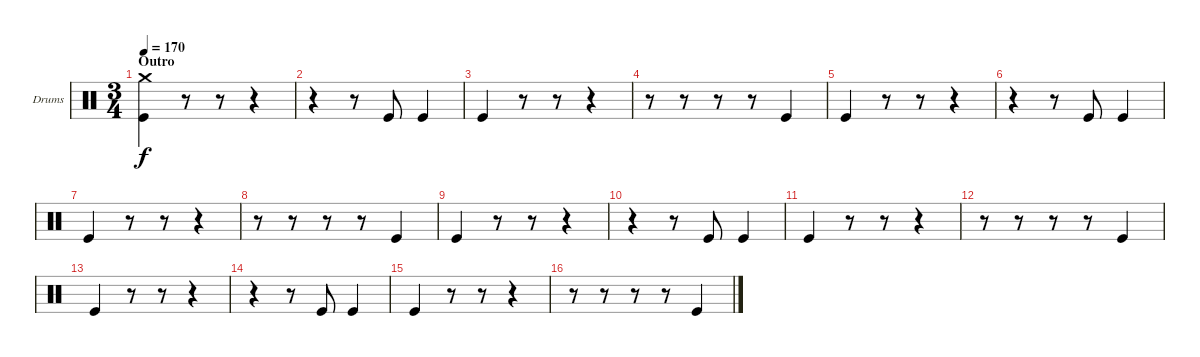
\defaultSystemsLayout 4
\bracketExtendMode groupsimilarinstruments
\firstSystemTrackNameOrientation horizontal
\otherSystemsTrackNameOrientation horizontal
\track ("Drums" "Drums") {instrument percussion}
\staff {score}
\articulation defaults
\ts (3 4)
\section ("" "Outro")
\tempo 170
\clef neutral
\ks c
("Kick (hit)" "Crash medium (hit)").4{dy f} r.8 r.8 r.4 |
r.4 r.8 "Kick (hit)".8 "Kick (hit)".4 |
"Kick (hit)".4 r.8 r.8 r.4 |
r.8 r.8 r.8 r.8 "Kick (hit)".4 |
"Kick (hit)".4 r.8 r.8 r.4 |
r.4 r.8 "Kick (hit)".8 "Kick (hit)".4 |
"Kick (hit)".4 r.8 r.8 r.4 |
r.8 r.8 r.8 r.8 "Kick (hit)".4 |
"Kick (hit)".4 r.8 r.8 r.4 |
r.4 r.8 "Kick (hit)".8 "Kick (hit)".4 |
"Kick (hit)".4 r.8 r.8 r.4 |
r.8 r.8 r.8 r.8 "Kick (hit)".4 |
"Kick (hit)".4 r.8 r.8 r.4 |
r.4 r.8 "Kick (hit)".8 "Kick (hit)".4 |
"Kick (hit)".4 r.8 r.8 r.4 |
r.8 r.8 r.8 r.8 "Kick (hit)".4
